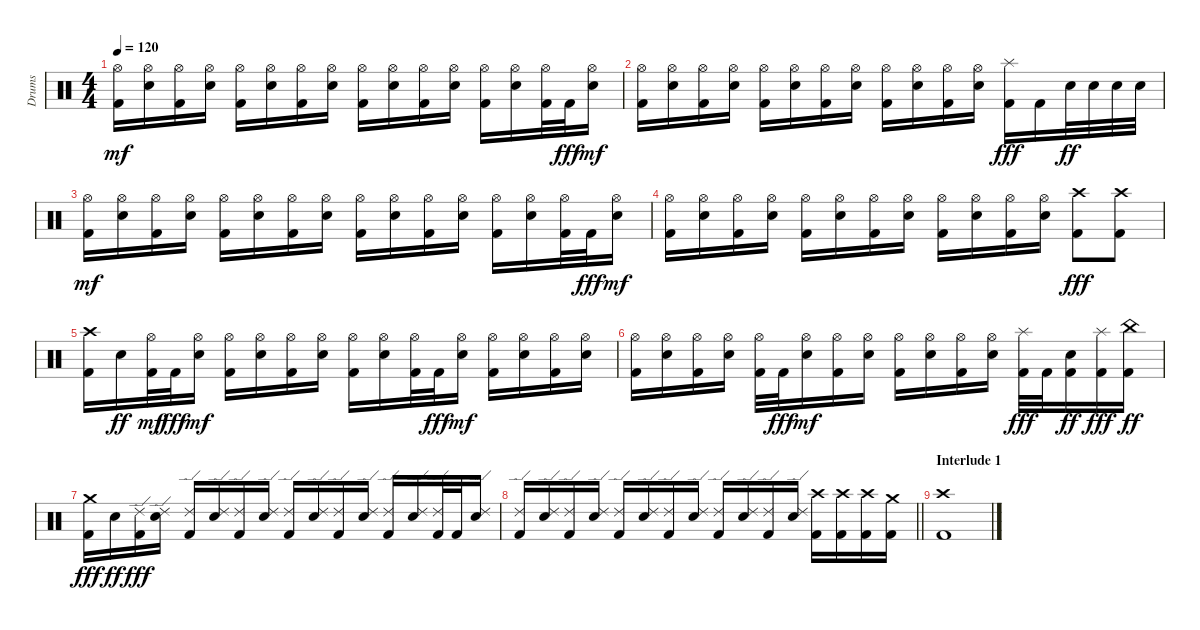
\track ("Drums" "Drums") {instrument percussion}
\staff {score}
\articulation defaults
\ts (4 4)
\tempo 120
\clef neutral
\ks c
("Kick (hit) 2" "Hi-Hat (open)").16{dy mf} ("Snare (hit) 2" "Hi-Hat (open)").16 ("Kick (hit) 2" "Hi-Hat (open)").16 ("Snare (hit) 2" "Hi-Hat (open)").16 ("Kick (hit) 2" "Hi-Hat (open)").16 ("Snare (hit) 2" "Hi-Hat (open)").16 ("Kick (hit) 2" "Hi-Hat (open)").16 ("Snare (hit) 2" "Hi-Hat (open)").16 ("Kick (hit) 2" "Hi-Hat (open)").16 ("Snare (hit) 2" "Hi-Hat (open)").16 ("Kick (hit) 2" "Hi-Hat (open)").16 ("Snare (hit) 2" "Hi-Hat (open)").16 ("Kick (hit) 2" "Hi-Hat (open)").16 ("Snare (hit) 2" "Hi-Hat (open)").16 ("Kick (hit) 2" "Hi-Hat (open)").32 "Kick (hit) 2".32{dy fff} ("Snare (hit) 2" "Hi-Hat (open)").16{dy mf} |
("Kick (hit) 2" "Hi-Hat (open)").16 ("Snare (hit) 2" "Hi-Hat (open)").16 ("Kick (hit) 2" "Hi-Hat (open)").16 ("Snare (hit) 2" "Hi-Hat (open)").16 ("Kick (hit) 2" "Hi-Hat (open)").16 ("Snare (hit) 2" "Hi-Hat (open)").16 ("Kick (hit) 2" "Hi-Hat (open)").16 ("Snare (hit) 2" "Hi-Hat (open)").16 ("Kick (hit) 2" "Hi-Hat (open)").16 ("Snare (hit) 2" "Hi-Hat (open)").16 ("Kick (hit) 2" "Hi-Hat (open)").16 ("Snare (hit) 2" "Hi-Hat (open)").16 ("Kick (hit) 2" "Splash (hit)").16{dy fff} "Kick (hit) 2".16 "Snare (hit) 2".32{dy ff} "Snare (hit) 2".32 "Snare (hit) 2".32 "Snare (hit) 2".32 |
("Kick (hit) 2" "Hi-Hat (open)").16{dy mf} ("Snare (hit) 2" "Hi-Hat (open)").16 ("Kick (hit) 2" "Hi-Hat (open)").16 ("Snare (hit) 2" "Hi-Hat (open)").16 ("Kick (hit) 2" "Hi-Hat (open)").16 ("Snare (hit) 2" "Hi-Hat (open)").16 ("Kick (hit) 2" "Hi-Hat (open)").16 ("Snare (hit) 2" "Hi-Hat (open)").16 ("Kick (hit) 2" "Hi-Hat (open)").16 ("Snare (hit) 2" "Hi-Hat (open)").16 ("Kick (hit) 2" "Hi-Hat (open)").16 ("Snare (hit) 2" "Hi-Hat (open)").16 ("Kick (hit) 2" "Hi-Hat (open)").16 ("Snare (hit) 2" "Hi-Hat (open)").16 ("Kick (hit) 2" "Hi-Hat (open)").32 "Kick (hit) 2".32{dy fff} ("Snare (hit) 2" "Hi-Hat (open)").16{dy mf} |
("Kick (hit) 2" "Hi-Hat (open)").16 ("Snare (hit) 2" "Hi-Hat (open)").16 ("Kick (hit) 2" "Hi-Hat (open)").16 ("Snare (hit) 2" "Hi-Hat (open)").16 ("Kick (hit) 2" "Hi-Hat (open)").16 ("Snare (hit) 2" "Hi-Hat (open)").16 ("Kick (hit) 2" "Hi-Hat (open)").16 ("Snare (hit) 2" "Hi-Hat (open)").16 ("Kick (hit) 2" "Hi-Hat (open)").16 ("Snare (hit) 2" "Hi-Hat (open)").16 ("Kick (hit) 2" "Hi-Hat (open)").16 ("Snare (hit) 2" "Hi-Hat (open)").16 ("Kick (hit) 2" "Crash high (hit)").8{dy fff} ("Kick (hit) 2" "Crash high (hit)").8 |
("Kick (hit) 2" "Crash high (hit)").16 "Snare (hit) 2".16{dy ff} ("Kick (hit) 2" "Hi-Hat (open)").32{dy mf} "Kick (hit) 2".32{dy fff} ("Snare (hit) 2" "Hi-Hat (open)").16{dy mf} ("Kick (hit) 2" "Hi-Hat (open)").16 ("Snare (hit) 2" "Hi-Hat (open)").16 ("Kick (hit) 2" "Hi-Hat (open)").16 ("Snare (hit) 2" "Hi-Hat (open)").16 ("Kick (hit) 2" "Hi-Hat (open)").16 ("Snare (hit) 2" "Hi-Hat (open)").16 ("Kick (hit) 2" "Hi-Hat (open)").32 "Kick (hit) 2".32{dy fff} ("Snare (hit) 2" "Hi-Hat (open)").16{dy mf} ("Kick (hit) 2" "Hi-Hat (open)").16 ("Snare (hit) 2" "Hi-Hat (open)").16 ("Kick (hit) 2" "Hi-Hat (open)").16 ("Snare (hit) 2" "Hi-Hat (open)").16 |
("Kick (hit) 2" "Hi-Hat (open)").16 ("Snare (hit) 2" "Hi-Hat (open)").16 ("Kick (hit) 2" "Hi-Hat (open)").16 ("Snare (hit) 2" "Hi-Hat (open)").16 ("Kick (hit) 2" "Hi-Hat (open)").32 "Kick (hit) 2".32{dy fff} ("Snare (hit) 2" "Hi-Hat (open)").16{dy mf} ("Kick (hit) 2" "Hi-Hat (open)").16 ("Snare (hit) 2" "Hi-Hat (open)").16 ("Kick (hit) 2" "Hi-Hat (open)").16 ("Snare (hit) 2" "Hi-Hat (open)").16 ("Kick (hit) 2" "Hi-Hat (open)").16 ("Snare (hit) 2" "Hi-Hat (open)").16 ("Kick (hit) 2" "Splash (hit)").32{dy fff} "Kick (hit) 2".32 ("Kick (hit) 2" "Snare (hit) 2").16{dy ff} ("Kick (hit) 2" "Splash (hit)").16{dy fff} ("Kick (hit) 2" "China (hit)").16{dy ff} |
("Kick (hit) 2" "Crash medium (hit)").16{dy fff} "Snare (hit) 2".16{dy ff} ("Kick (hit) 2" "Ride (edge) 2").16{dy fff} ("Snare (hit) 2" "Ride (edge) 2").16 ("Kick (hit) 2" "Ride (edge) 2").16 ("Snare (hit) 2" "Ride (edge) 2").16 ("Kick (hit) 2" "Ride (edge) 2").16 ("Snare (hit) 2" "Ride (edge) 2").16 ("Kick (hit) 2" "Ride (edge) 2").16 ("Snare (hit) 2" "Ride (edge) 2").16 ("Kick (hit) 2" "Ride (edge) 2").16 ("Snare (hit) 2" "Ride (edge) 2").16 ("Kick (hit) 2" "Ride (edge) 2").16 ("Snare (hit) 2" "Ride (edge) 2").16 ("Kick (hit) 2" "Ride (edge) 2").32 "Kick (hit) 2".32 ("Snare (hit) 2" "Ride (edge) 2").16 |
\barLineRight lightlight
("Kick (hit) 2" "Ride (edge) 2").16 ("Snare (hit) 2" "Ride (edge) 2").16 ("Kick (hit) 2" "Ride (edge) 2").16 ("Snare (hit) 2" "Ride (edge) 2").16 ("Kick (hit) 2" "Ride (edge) 2").16 ("Snare (hit) 2" "Ride (edge) 2").16 ("Kick (hit) 2" "Ride (edge) 2").16 ("Snare (hit) 2" "Ride (edge) 2").16 ("Kick (hit) 2" "Ride (edge) 2").16 ("Snare (hit) 2" "Ride (edge) 2").16 ("Kick (hit) 2" "Ride (edge) 2").16 ("Snare (hit) 2" "Ride (edge) 2").16 ("Kick (hit) 2" "Crash high (hit)").16 ("Kick (hit) 2" "Crash high (hit)").16 ("Kick (hit) 2" "Crash high (hit)").16 ("Kick (hit) 2" "Crash medium (hit)").16 |
\section ("" "Interlude 1")
("Kick (hit) 2" "Crash high (hit)").1
